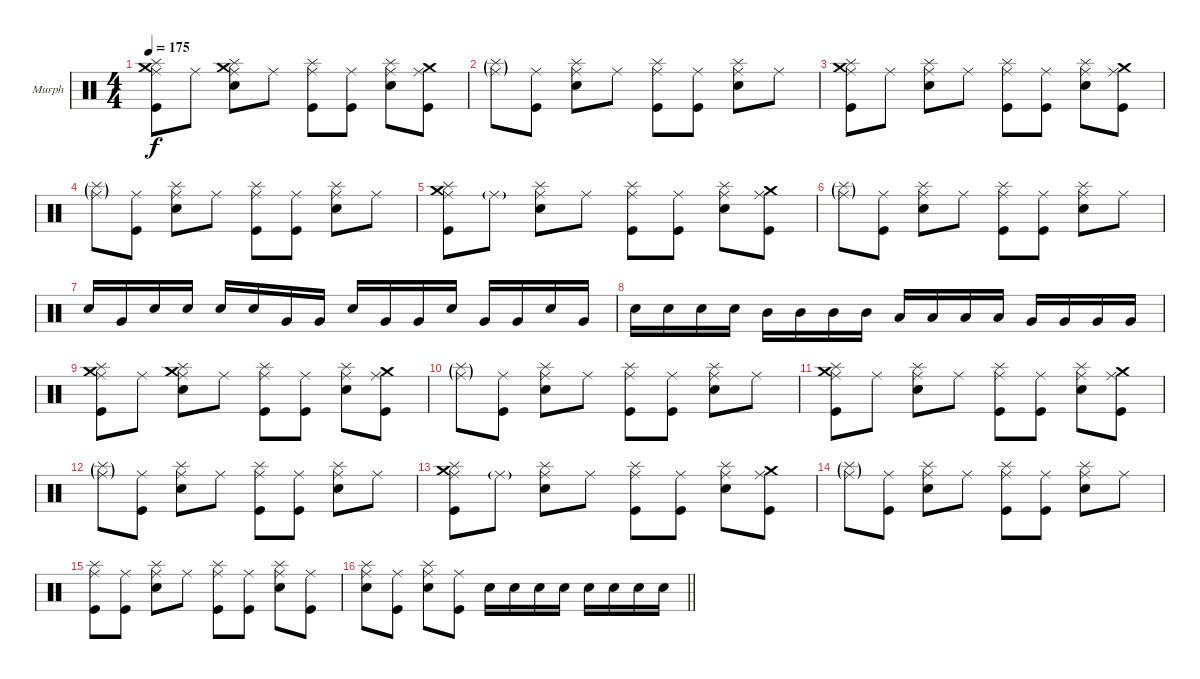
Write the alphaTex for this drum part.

\defaultSystemsLayout 4
\bracketExtendMode groupsimilarinstruments
\firstSystemTrackNameOrientation horizontal
\otherSystemsTrackNameOrientation horizontal
\track ("Murph" "Murph") {instrument percussion}
\staff {score}
\articulation defaults
\ts (4 4)
\tempo 175
\clef neutral
\scale
0.333333
\ks c
("Kick (hit)" "Ride (middle)" "Splash (hit)" "Crash medium (hit)").8{dy f} "Ride (middle)".8 ("Snare (hit) 2" "Ride (middle)" "Splash (hit)" "Crash medium (hit)").8 "Ride (middle)".8 ("Kick (hit)" "Ride (middle)" "Splash (hit)").8 ("Kick (hit)" "Ride (middle)").8 ("Snare (hit) 2" "Ride (middle)" "Splash (hit)").8 ("Kick (hit)" "Ride (middle)" "Crash medium (hit)").8 |
\scale
0.333333 ("Ride (middle)"{g} "Splash (hit)"{g}).8 ("Kick (hit)" "Ride (middle)").8 ("Snare (hit) 2" "Ride (middle)" "Splash (hit)").8 "Ride (middle)".8 ("Kick (hit)" "Ride (middle)" "Splash (hit)").8 ("Kick (hit)" "Ride (middle)").8 ("Snare (hit) 2" "Ride (middle)" "Splash (hit)").8 "Ride (middle)".8 |
\scale
0.333333 ("Kick (hit)" "Ride (middle)" "Splash (hit)" "Crash medium (hit)").8 "Ride (middle)".8 ("Snare (hit) 2" "Ride (middle)" "Splash (hit)").8 "Ride (middle)".8 ("Kick (hit)" "Ride (middle)" "Splash (hit)").8 ("Kick (hit)" "Ride (middle)").8 ("Snare (hit) 2" "Ride (middle)" "Splash (hit)").8 ("Kick (hit)" "Ride (middle)" "Crash medium (hit)").8 |
\scale
0.333333 ("Ride (middle)"{g} "Splash (hit)"{g}).8 ("Kick (hit)" "Ride (middle)").8 ("Snare (hit) 2" "Ride (middle)" "Splash (hit)").8 "Ride (middle)".8 ("Kick (hit)" "Ride (middle)" "Splash (hit)").8 ("Kick (hit)" "Ride (middle)").8 ("Snare (hit) 2" "Ride (middle)" "Splash (hit)").8 "Ride (middle)".8 |
\scale
0.333333 ("Kick (hit)" "Ride (middle)" "Splash (hit)" "Crash medium (hit)").8 "Ride (middle)"{g}.8 ("Snare (hit) 2" "Ride (middle)" "Splash (hit)").8 "Ride (middle)".8 ("Kick (hit)" "Ride (middle)" "Splash (hit)").8 ("Kick (hit)" "Ride (middle)").8 ("Snare (hit) 2" "Ride (middle)" "Splash (hit)").8 ("Kick (hit)" "Ride (middle)" "Crash medium (hit)").8 |
\scale
0.333333 ("Ride (middle)"{g} "Splash (hit)"{g}).8 ("Kick (hit)" "Ride (middle)").8 ("Snare (hit) 2" "Ride (middle)" "Splash (hit)").8 "Ride (middle)".8 ("Kick (hit)" "Ride (middle)" "Splash (hit)").8 ("Kick (hit)" "Ride (middle)").8 ("Snare (hit) 2" "Ride (middle)" "Splash (hit)").8 "Ride (middle)".8 |
\scale
0.333333 "Snare (hit) 2".16 "Very Low Tom (hit)".16 "Snare (hit) 2".16 "Snare (hit) 2".16 "Snare (hit) 2".16 "Snare (hit) 2".16 "Very Low Tom (hit)".16 "Very Low Tom (hit)".16 "Snare (hit) 2".16 "Very Low Tom (hit)".16 "Very Low Tom (hit)".16 "Snare (hit) 2".16 "Very Low Tom (hit)".16 "Very Low Tom (hit)".16 "Snare (hit) 2".16 "Very Low Tom (hit)".16 |
\scale
0.333333 "Snare (hit) 2".16 "Snare (hit) 2".16 "Snare (hit) 2".16 "Snare (hit) 2".16 "Mid Tom (hit)".16 "Mid Tom (hit)".16 "Mid Tom (hit)".16 "Mid Tom (hit)".16 "Low Tom (hit)".16 "Low Tom (hit)".16 "Low Tom (hit)".16 "Low Tom (hit)".16 "Very Low Tom (hit)".16 "Very Low Tom (hit)".16 "Very Low Tom (hit)".16 "Very Low Tom (hit)".16 |
\scale
0.333333 ("Kick (hit)" "Ride (middle)" "Splash (hit)" "Crash medium (hit)").8 "Ride (middle)".8 ("Snare (hit) 2" "Ride (middle)" "Splash (hit)" "Crash medium (hit)").8 "Ride (middle)".8 ("Kick (hit)" "Ride (middle)" "Splash (hit)").8 ("Kick (hit)" "Ride (middle)").8 ("Snare (hit) 2" "Ride (middle)" "Splash (hit)").8 ("Kick (hit)" "Ride (middle)" "Crash medium (hit)").8 |
\scale
0.333333 ("Ride (middle)"{g} "Splash (hit)"{g}).8 ("Kick (hit)" "Ride (middle)").8 ("Snare (hit) 2" "Ride (middle)" "Splash (hit)").8 "Ride (middle)".8 ("Kick (hit)" "Ride (middle)" "Splash (hit)").8 ("Kick (hit)" "Ride (middle)").8 ("Snare (hit) 2" "Ride (middle)" "Splash (hit)").8 "Ride (middle)".8 |
\scale
0.333333 ("Kick (hit)" "Ride (middle)" "Splash (hit)" "Crash medium (hit)").8 "Ride (middle)".8 ("Snare (hit) 2" "Ride (middle)" "Splash (hit)").8 "Ride (middle)".8 ("Kick (hit)" "Ride (middle)" "Splash (hit)").8 ("Kick (hit)" "Ride (middle)").8 ("Snare (hit) 2" "Ride (middle)" "Splash (hit)").8 ("Kick (hit)" "Ride (middle)" "Crash medium (hit)").8 |
\scale
0.333333 ("Ride (middle)"{g} "Splash (hit)"{g}).8 ("Kick (hit)" "Ride (middle)").8 ("Snare (hit) 2" "Ride (middle)" "Splash (hit)").8 "Ride (middle)".8 ("Kick (hit)" "Ride (middle)" "Splash (hit)").8 ("Kick (hit)" "Ride (middle)").8 ("Snare (hit) 2" "Ride (middle)" "Splash (hit)").8 "Ride (middle)".8 |
\scale
0.333333 ("Kick (hit)" "Ride (middle)" "Splash (hit)" "Crash medium (hit)").8 "Ride (middle)"{g}.8 ("Snare (hit) 2" "Ride (middle)" "Splash (hit)").8 "Ride (middle)".8 ("Kick (hit)" "Ride (middle)" "Splash (hit)").8 ("Kick (hit)" "Ride (middle)").8 ("Snare (hit) 2" "Ride (middle)" "Splash (hit)").8 ("Kick (hit)" "Ride (middle)" "Crash medium (hit)").8 |
\scale
0.333333 ("Ride (middle)"{g} "Splash (hit)"{g}).8 ("Kick (hit)" "Ride (middle)").8 ("Snare (hit) 2" "Ride (middle)" "Splash (hit)").8 "Ride (middle)".8 ("Kick (hit)" "Ride (middle)" "Splash (hit)").8 ("Kick (hit)" "Ride (middle)").8 ("Snare (hit) 2" "Ride (middle)" "Splash (hit)").8 "Ride (middle)".8 |
\scale
0.333333 ("Kick (hit)" "Ride (middle)" "Splash (hit)").8 ("Kick (hit)" "Ride (middle)").8 ("Snare (hit) 2" "Ride (middle)" "Splash (hit)").8 "Ride (middle)".8 ("Kick (hit)" "Ride (middle)" "Splash (hit)").8 ("Kick (hit)" "Ride (middle)").8 ("Snare (hit) 2" "Ride (middle)" "Splash (hit)").8 ("Kick (hit)" "Ride (middle)").8 |
\scale
0.333333
\barLineRight lightlight
("Snare (hit) 2" "Ride (middle)" "Splash (hit)").8 ("Kick (hit)" "Ride (middle)").8 ("Snare (hit) 2" "Ride (middle)" "Splash (hit)").8 ("Kick (hit)" "Ride (middle)").8 "Snare (hit) 2".16 "Snare (hit) 2".16 "Snare (hit) 2".16 "Snare (hit) 2".16 "Snare (hit) 2".16 "Snare (hit) 2".16 "Snare (hit) 2".16 "Snare (hit) 2".16
